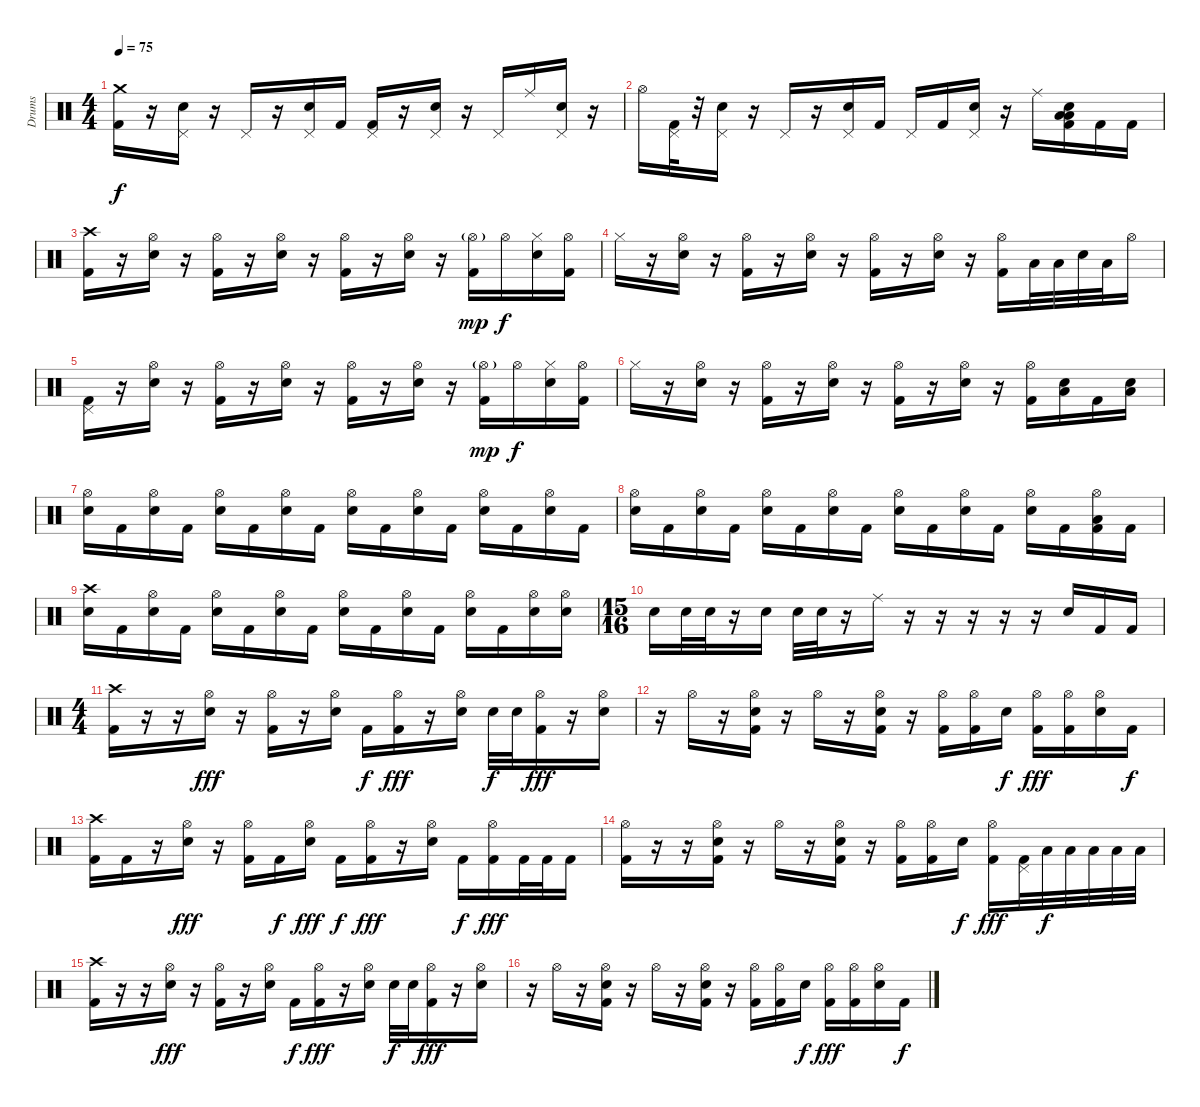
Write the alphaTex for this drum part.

\track ("Drums" "Drums") {instrument percussion}
\staff {score}
\articulation defaults
\ts (4 4)
\tempo 75
\clef neutral
\ks c
("Crash medium (hit)" "Kick (hit) 2").16{dy f} r.16 ("Pedal Hi-Hat (hit)" "Electric Snare (hit)").16 r.16 "Pedal Hi-Hat (hit)".16 r.16 ("Pedal Hi-Hat (hit)" "Electric Snare (hit)").16 "Kick (hit) 2".16 ("Pedal Hi-Hat (hit)" "Kick (hit) 2").16 r.16 ("Pedal Hi-Hat (hit)" "Electric Snare (hit)").16 r.16 "Pedal Hi-Hat (hit)".16 "Ride (middle)".16 ("Pedal Hi-Hat (hit)" "Electric Snare (hit)").16 r.16 |
"Hi-Hat (open)".16 ("Pedal Hi-Hat (hit)" "Kick (hit) 2").32 r.32 ("Pedal Hi-Hat (hit)" "Electric Snare (hit)").16 r.16 "Pedal Hi-Hat (hit)".16 r.16 ("Pedal Hi-Hat (hit)" "Electric Snare (hit)").16 "Kick (hit) 2".16 "Pedal Hi-Hat (hit)".16 "Kick (hit) 2".16 ("Pedal Hi-Hat (hit)" "Electric Snare (hit)").16 r.16 "Ride (middle)".16 ("Low Tom (hit)" "Electric Snare (hit)" "Low Tom (hit)" "Kick (hit) 2").16 "Kick (hit) 2".16 "Kick (hit) 2".16 |
("Crash high (hit)" "Kick (hit) 2").16 r.16 ("Hi-Hat (open)" "Electric Snare (hit)").16 r.16 ("Hi-Hat (open)" "Kick (hit) 2").16 r.16 ("Hi-Hat (open)" "Electric Snare (hit)").16 r.16 ("Hi-Hat (open)" "Kick (hit) 2").16 r.16 ("Hi-Hat (open)" "Electric Snare (hit)").16 r.16 ("Hi-Hat (open)"{g} "Kick (hit) 2").16{dy mp} "Hi-Hat (open)".16{dy f} ("Hi-Hat (closed)" "Electric Snare (hit)").16 ("Hi-Hat (open)" "Kick (hit) 2").16 |
"Hi-Hat (closed)".16 r.16 ("Hi-Hat (open)" "Electric Snare (hit)").16 r.16 ("Hi-Hat (open)" "Kick (hit) 2").16 r.16 ("Hi-Hat (open)" "Electric Snare (hit)").16 r.16 ("Hi-Hat (open)" "Kick (hit) 2").16 r.16 ("Hi-Hat (open)" "Electric Snare (hit)").16 r.16 ("Hi-Hat (open)" "Kick (hit) 2").16 "Low Tom (hit)".32 "Low Tom (hit)".32 "Electric Snare (hit)".32 "Low Tom (hit)".32 "Hi-Hat (open)".16 |
("Pedal Hi-Hat (hit)" "Kick (hit) 2").16 r.16 ("Hi-Hat (open)" "Electric Snare (hit)").16 r.16 ("Hi-Hat (open)" "Kick (hit) 2").16 r.16 ("Hi-Hat (open)" "Electric Snare (hit)").16 r.16 ("Hi-Hat (open)" "Kick (hit) 2").16 r.16 ("Hi-Hat (open)" "Electric Snare (hit)").16 r.16 ("Hi-Hat (open)"{g} "Kick (hit) 2").16{dy mp} "Hi-Hat (open)".16{dy f} ("Hi-Hat (closed)" "Electric Snare (hit)").16 ("Hi-Hat (open)" "Kick (hit) 2").16 |
"Hi-Hat (closed)".16 r.16 ("Hi-Hat (open)" "Electric Snare (hit)").16 r.16 ("Hi-Hat (open)" "Kick (hit) 2").16 r.16 ("Hi-Hat (open)" "Electric Snare (hit)").16 r.16 ("Hi-Hat (open)" "Kick (hit) 2").16 r.16 ("Hi-Hat (open)" "Electric Snare (hit)").16 r.16 ("Hi-Hat (open)" "Kick (hit) 2").16 ("Low Tom (hit)" "Electric Snare (hit)").16 "Kick (hit) 2".16 ("Low Tom (hit)" "Electric Snare (hit)").16 |
("Hi-Hat (open)" "Electric Snare (hit)").16 "Kick (hit) 2".16 ("Hi-Hat (open)" "Electric Snare (hit)").16 "Kick (hit) 2".16 ("Hi-Hat (open)" "Electric Snare (hit)").16 "Kick (hit) 2".16 ("Hi-Hat (open)" "Electric Snare (hit)").16 "Kick (hit) 2".16 ("Hi-Hat (open)" "Electric Snare (hit)").16 "Kick (hit) 2".16 ("Hi-Hat (open)" "Electric Snare (hit)").16 "Kick (hit) 2".16 ("Hi-Hat (open)" "Electric Snare (hit)").16 "Kick (hit) 2".16 ("Hi-Hat (open)" "Electric Snare (hit)").16 "Kick (hit) 2".16 |
("Hi-Hat (open)" "Electric Snare (hit)").16 "Kick (hit) 2".16 ("Hi-Hat (open)" "Electric Snare (hit)").16 "Kick (hit) 2".16 ("Hi-Hat (open)" "Electric Snare (hit)").16 "Kick (hit) 2".16 ("Hi-Hat (open)" "Electric Snare (hit)").16 "Kick (hit) 2".16 ("Hi-Hat (open)" "Electric Snare (hit)").16 "Kick (hit) 2".16 ("Hi-Hat (open)" "Electric Snare (hit)").16 "Kick (hit) 2".16 ("Hi-Hat (open)" "Electric Snare (hit)").16 "Kick (hit) 2".16 ("Hi-Hat (open)" "Low Tom (hit)" "Kick (hit) 2").16 "Kick (hit) 2".16 |
("Crash high (hit)" "Electric Snare (hit)").16 "Kick (hit) 2".16 ("Hi-Hat (open)" "Electric Snare (hit)").16 "Kick (hit) 2".16 ("Hi-Hat (open)" "Electric Snare (hit)").16 "Kick (hit) 2".16 ("Hi-Hat (open)" "Electric Snare (hit)").16 "Kick (hit) 2".16 ("Hi-Hat (open)" "Electric Snare (hit)").16 "Kick (hit) 2".16 ("Hi-Hat (open)" "Electric Snare (hit)").16 "Kick (hit) 2".16 ("Hi-Hat (open)" "Electric Snare (hit)").16 "Kick (hit) 2".16 ("Hi-Hat (open)" "Electric Snare (hit)").16 ("Hi-Hat (open)" "Electric Snare (hit)").16 |
\ts (15 16)
"Electric Snare (hit)".16 "Electric Snare (hit)".32 "Electric Snare (hit)".32 r.16 "Electric Snare (hit)".16 "Electric Snare (hit)".32 "Electric Snare (hit)".32 r.16 "Ride (middle)".16 r.16 r.16 r.16 r.16 r.16 "Electric Snare (hit)".16 "Kick (hit) 2".16 "Kick (hit) 2".16 |
\ts (4 4)
("Crash high (hit)" "Kick (hit) 2").16 r.16 r.16 ("Hi-Hat (open)" "Electric Snare (hit)").16{dy fff} r.16 ("Hi-Hat (open)" "Kick (hit) 2").16 r.16 ("Hi-Hat (open)" "Electric Snare (hit)").16 "Kick (hit) 2".16{dy f} ("Hi-Hat (open)" "Kick (hit) 2").16{dy fff} r.16 ("Hi-Hat (open)" "Electric Snare (hit)").16 "Electric Snare (hit)".32{dy f} "Electric Snare (hit)".32 ("Hi-Hat (open)" "Kick (hit) 2").16{dy fff} r.16 ("Hi-Hat (open)" "Electric Snare (hit)").16 |
r.16 "Hi-Hat (open)".16 r.16 ("Hi-Hat (open)" "Electric Snare (hit)" "Kick (hit) 2").16 r.16 "Hi-Hat (open)".16 r.16 ("Hi-Hat (open)" "Electric Snare (hit)" "Kick (hit) 2").16 r.16 ("Hi-Hat (open)" "Kick (hit) 2").16 ("Hi-Hat (open)" "Kick (hit) 2").16 "Electric Snare (hit)".16{dy f} ("Hi-Hat (open)" "Kick (hit) 2").16{dy fff} ("Hi-Hat (open)" "Kick (hit) 2").16 ("Hi-Hat (open)" "Electric Snare (hit)").16 "Kick (hit) 2".16{dy f} |
("Crash high (hit)" "Kick (hit) 2").16 "Kick (hit) 2".16 r.16 ("Hi-Hat (open)" "Electric Snare (hit)").16{dy fff} r.16 ("Hi-Hat (open)" "Kick (hit) 2").16 "Kick (hit) 2".16{dy f} ("Hi-Hat (open)" "Electric Snare (hit)").16{dy fff} "Kick (hit) 2".16{dy f} ("Hi-Hat (open)" "Kick (hit) 2").16{dy fff} r.16 ("Hi-Hat (open)" "Electric Snare (hit)").16 "Kick (hit) 2".16{dy f} ("Hi-Hat (open)" "Kick (hit) 2").16{dy fff} "Kick (hit) 2".32 "Kick (hit) 2".32 "Kick (hit) 2".16 |
("Hi-Hat (open)" "Kick (hit) 2").16 r.16 r.16 ("Hi-Hat (open)" "Electric Snare (hit)" "Kick (hit) 2").16 r.16 "Hi-Hat (open)".16 r.16 ("Hi-Hat (open)" "Electric Snare (hit)" "Kick (hit) 2").16 r.16 ("Hi-Hat (open)" "Kick (hit) 2").16 ("Hi-Hat (open)" "Kick (hit) 2").16 "Electric Snare (hit)".16{dy f} ("Hi-Hat (open)" "Kick (hit) 2").16{dy fff} ("Pedal Hi-Hat (hit)" "Kick (hit) 2").32 "Low Tom (hit)".32{dy f} "Low Tom (hit)".32 "Low Tom (hit)".32 "Low Tom (hit)".32 "Low Tom (hit)".32 |
("Crash high (hit)" "Kick (hit) 2").16 r.16 r.16 ("Hi-Hat (open)" "Electric Snare (hit)").16{dy fff} r.16 ("Hi-Hat (open)" "Kick (hit) 2").16 r.16 ("Hi-Hat (open)" "Electric Snare (hit)").16 "Kick (hit) 2".16{dy f} ("Hi-Hat (open)" "Kick (hit) 2").16{dy fff} r.16 ("Hi-Hat (open)" "Electric Snare (hit)").16 "Electric Snare (hit)".32{dy f} "Electric Snare (hit)".32 ("Hi-Hat (open)" "Kick (hit) 2").16{dy fff} r.16 ("Hi-Hat (open)" "Electric Snare (hit)").16 |
r.16 "Hi-Hat (open)".16 r.16 ("Hi-Hat (open)" "Electric Snare (hit)" "Kick (hit) 2").16 r.16 "Hi-Hat (open)".16 r.16 ("Hi-Hat (open)" "Electric Snare (hit)" "Kick (hit) 2").16 r.16 ("Hi-Hat (open)" "Kick (hit) 2").16 ("Hi-Hat (open)" "Kick (hit) 2").16 "Electric Snare (hit)".16{dy f} ("Hi-Hat (open)" "Kick (hit) 2").16{dy fff} ("Hi-Hat (open)" "Kick (hit) 2").16 ("Hi-Hat (open)" "Electric Snare (hit)").16 "Kick (hit) 2".16{dy f}
